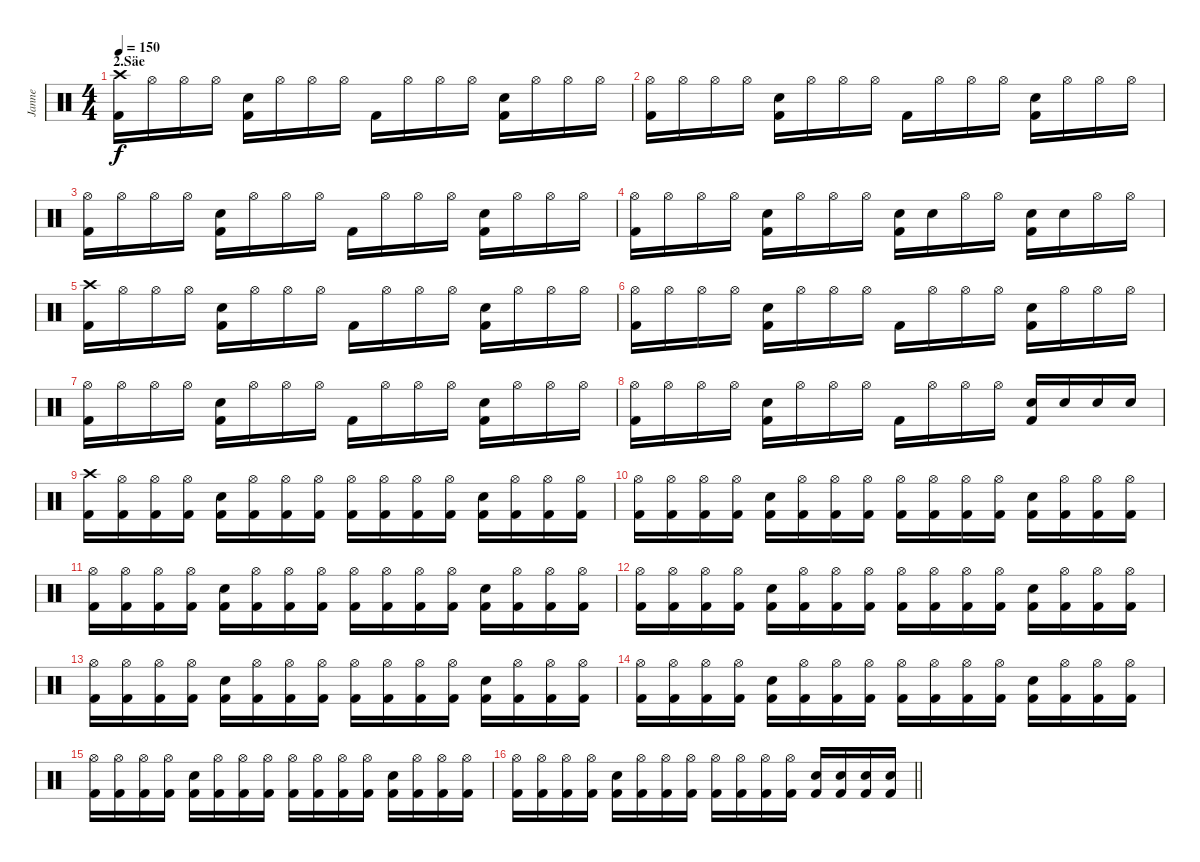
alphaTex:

\track ("Janne" "Janne") {instrument percussion}
\staff {score}
\articulation defaults
\ts (4 4)
\section ("" "2.Säe")
\tempo 150
\clef neutral
\ks c
("Crash high (hit)" "Kick (hit) 2").16{dy f} "Hi-Hat (open)".16 "Hi-Hat (open)".16 "Hi-Hat (open)".16 ("Electric Snare (hit)" "Kick (hit) 2").16 "Hi-Hat (open)".16 "Hi-Hat (open)".16 "Hi-Hat (open)".16 "Kick (hit) 2".16 "Hi-Hat (open)".16 "Hi-Hat (open)".16 "Hi-Hat (open)".16 ("Electric Snare (hit)" "Kick (hit) 2").16 "Hi-Hat (open)".16 "Hi-Hat (open)".16 "Hi-Hat (open)".16 |
("Hi-Hat (open)" "Kick (hit) 2").16 "Hi-Hat (open)".16 "Hi-Hat (open)".16 "Hi-Hat (open)".16 ("Electric Snare (hit)" "Kick (hit) 2").16 "Hi-Hat (open)".16 "Hi-Hat (open)".16 "Hi-Hat (open)".16 "Kick (hit) 2".16 "Hi-Hat (open)".16 "Hi-Hat (open)".16 "Hi-Hat (open)".16 ("Electric Snare (hit)" "Kick (hit) 2").16 "Hi-Hat (open)".16 "Hi-Hat (open)".16 "Hi-Hat (open)".16 |
("Hi-Hat (open)" "Kick (hit) 2").16 "Hi-Hat (open)".16 "Hi-Hat (open)".16 "Hi-Hat (open)".16 ("Electric Snare (hit)" "Kick (hit) 2").16 "Hi-Hat (open)".16 "Hi-Hat (open)".16 "Hi-Hat (open)".16 "Kick (hit) 2".16 "Hi-Hat (open)".16 "Hi-Hat (open)".16 "Hi-Hat (open)".16 ("Electric Snare (hit)" "Kick (hit) 2").16 "Hi-Hat (open)".16 "Hi-Hat (open)".16 "Hi-Hat (open)".16 |
("Hi-Hat (open)" "Kick (hit) 2").16 "Hi-Hat (open)".16 "Hi-Hat (open)".16 "Hi-Hat (open)".16 ("Electric Snare (hit)" "Kick (hit) 2").16 "Hi-Hat (open)".16 "Hi-Hat (open)".16 "Hi-Hat (open)".16 ("Electric Snare (hit)" "Kick (hit) 2").16 "Electric Snare (hit)".16 "Hi-Hat (open)".16 "Hi-Hat (open)".16 ("Electric Snare (hit)" "Kick (hit) 2").16 "Electric Snare (hit)".16 "Hi-Hat (open)".16 "Hi-Hat (open)".16 |
("Crash high (hit)" "Kick (hit) 2").16 "Hi-Hat (open)".16 "Hi-Hat (open)".16 "Hi-Hat (open)".16 ("Electric Snare (hit)" "Kick (hit) 2").16 "Hi-Hat (open)".16 "Hi-Hat (open)".16 "Hi-Hat (open)".16 "Kick (hit) 2".16 "Hi-Hat (open)".16 "Hi-Hat (open)".16 "Hi-Hat (open)".16 ("Electric Snare (hit)" "Kick (hit) 2").16 "Hi-Hat (open)".16 "Hi-Hat (open)".16 "Hi-Hat (open)".16 |
("Hi-Hat (open)" "Kick (hit) 2").16 "Hi-Hat (open)".16 "Hi-Hat (open)".16 "Hi-Hat (open)".16 ("Electric Snare (hit)" "Kick (hit) 2").16 "Hi-Hat (open)".16 "Hi-Hat (open)".16 "Hi-Hat (open)".16 "Kick (hit) 2".16 "Hi-Hat (open)".16 "Hi-Hat (open)".16 "Hi-Hat (open)".16 ("Electric Snare (hit)" "Kick (hit) 2").16 "Hi-Hat (open)".16 "Hi-Hat (open)".16 "Hi-Hat (open)".16 |
("Hi-Hat (open)" "Kick (hit) 2").16 "Hi-Hat (open)".16 "Hi-Hat (open)".16 "Hi-Hat (open)".16 ("Electric Snare (hit)" "Kick (hit) 2").16 "Hi-Hat (open)".16 "Hi-Hat (open)".16 "Hi-Hat (open)".16 "Kick (hit) 2".16 "Hi-Hat (open)".16 "Hi-Hat (open)".16 "Hi-Hat (open)".16 ("Electric Snare (hit)" "Kick (hit) 2").16 "Hi-Hat (open)".16 "Hi-Hat (open)".16 "Hi-Hat (open)".16 |
("Hi-Hat (open)" "Kick (hit) 2").16 "Hi-Hat (open)".16 "Hi-Hat (open)".16 "Hi-Hat (open)".16 ("Electric Snare (hit)" "Kick (hit) 2").16 "Hi-Hat (open)".16 "Hi-Hat (open)".16 "Hi-Hat (open)".16 "Kick (hit) 2".16 "Hi-Hat (open)".16 "Hi-Hat (open)".16 "Hi-Hat (open)".16 ("Electric Snare (hit)" "Kick (hit) 2").16 "Electric Snare (hit)".16 "Electric Snare (hit)".16 "Electric Snare (hit)".16 |
("Crash high (hit)" "Kick (hit) 2").16 ("Hi-Hat (open)" "Kick (hit) 2").16 ("Hi-Hat (open)" "Kick (hit) 2").16 ("Hi-Hat (open)" "Kick (hit) 2").16 ("Electric Snare (hit)" "Kick (hit) 2").16 ("Hi-Hat (open)" "Kick (hit) 2").16 ("Hi-Hat (open)" "Kick (hit) 2").16 ("Hi-Hat (open)" "Kick (hit) 2").16 ("Hi-Hat (open)" "Kick (hit) 2").16 ("Hi-Hat (open)" "Kick (hit) 2").16 ("Hi-Hat (open)" "Kick (hit) 2").16 ("Hi-Hat (open)" "Kick (hit) 2").16 ("Electric Snare (hit)" "Kick (hit) 2").16 ("Hi-Hat (open)" "Kick (hit) 2").16 ("Hi-Hat (open)" "Kick (hit) 2").16 ("Hi-Hat (open)" "Kick (hit) 2").16 |
("Hi-Hat (open)" "Kick (hit) 2").16 ("Hi-Hat (open)" "Kick (hit) 2").16 ("Hi-Hat (open)" "Kick (hit) 2").16 ("Hi-Hat (open)" "Kick (hit) 2").16 ("Electric Snare (hit)" "Kick (hit) 2").16 ("Hi-Hat (open)" "Kick (hit) 2").16 ("Hi-Hat (open)" "Kick (hit) 2").16 ("Hi-Hat (open)" "Kick (hit) 2").16 ("Hi-Hat (open)" "Kick (hit) 2").16 ("Hi-Hat (open)" "Kick (hit) 2").16 ("Hi-Hat (open)" "Kick (hit) 2").16 ("Hi-Hat (open)" "Kick (hit) 2").16 ("Electric Snare (hit)" "Kick (hit) 2").16 ("Hi-Hat (open)" "Kick (hit) 2").16 ("Hi-Hat (open)" "Kick (hit) 2").16 ("Hi-Hat (open)" "Kick (hit) 2").16 |
("Hi-Hat (open)" "Kick (hit) 2").16 ("Hi-Hat (open)" "Kick (hit) 2").16 ("Hi-Hat (open)" "Kick (hit) 2").16 ("Hi-Hat (open)" "Kick (hit) 2").16 ("Electric Snare (hit)" "Kick (hit) 2").16 ("Hi-Hat (open)" "Kick (hit) 2").16 ("Hi-Hat (open)" "Kick (hit) 2").16 ("Hi-Hat (open)" "Kick (hit) 2").16 ("Hi-Hat (open)" "Kick (hit) 2").16 ("Hi-Hat (open)" "Kick (hit) 2").16 ("Hi-Hat (open)" "Kick (hit) 2").16 ("Hi-Hat (open)" "Kick (hit) 2").16 ("Electric Snare (hit)" "Kick (hit) 2").16 ("Hi-Hat (open)" "Kick (hit) 2").16 ("Hi-Hat (open)" "Kick (hit) 2").16 ("Hi-Hat (open)" "Kick (hit) 2").16 |
("Hi-Hat (open)" "Kick (hit) 2").16 ("Hi-Hat (open)" "Kick (hit) 2").16 ("Hi-Hat (open)" "Kick (hit) 2").16 ("Hi-Hat (open)" "Kick (hit) 2").16 ("Electric Snare (hit)" "Kick (hit) 2").16 ("Hi-Hat (open)" "Kick (hit) 2").16 ("Hi-Hat (open)" "Kick (hit) 2").16 ("Hi-Hat (open)" "Kick (hit) 2").16 ("Hi-Hat (open)" "Kick (hit) 2").16 ("Hi-Hat (open)" "Kick (hit) 2").16 ("Hi-Hat (open)" "Kick (hit) 2").16 ("Hi-Hat (open)" "Kick (hit) 2").16 ("Electric Snare (hit)" "Kick (hit) 2").16 ("Hi-Hat (open)" "Kick (hit) 2").16 ("Hi-Hat (open)" "Kick (hit) 2").16 ("Hi-Hat (open)" "Kick (hit) 2").16 |
("Hi-Hat (open)" "Kick (hit) 2").16 ("Hi-Hat (open)" "Kick (hit) 2").16 ("Hi-Hat (open)" "Kick (hit) 2").16 ("Hi-Hat (open)" "Kick (hit) 2").16 ("Electric Snare (hit)" "Kick (hit) 2").16 ("Hi-Hat (open)" "Kick (hit) 2").16 ("Hi-Hat (open)" "Kick (hit) 2").16 ("Hi-Hat (open)" "Kick (hit) 2").16 ("Hi-Hat (open)" "Kick (hit) 2").16 ("Hi-Hat (open)" "Kick (hit) 2").16 ("Hi-Hat (open)" "Kick (hit) 2").16 ("Hi-Hat (open)" "Kick (hit) 2").16 ("Electric Snare (hit)" "Kick (hit) 2").16 ("Hi-Hat (open)" "Kick (hit) 2").16 ("Hi-Hat (open)" "Kick (hit) 2").16 ("Hi-Hat (open)" "Kick (hit) 2").16 |
("Hi-Hat (open)" "Kick (hit) 2").16 ("Hi-Hat (open)" "Kick (hit) 2").16 ("Hi-Hat (open)" "Kick (hit) 2").16 ("Hi-Hat (open)" "Kick (hit) 2").16 ("Electric Snare (hit)" "Kick (hit) 2").16 ("Hi-Hat (open)" "Kick (hit) 2").16 ("Hi-Hat (open)" "Kick (hit) 2").16 ("Hi-Hat (open)" "Kick (hit) 2").16 ("Hi-Hat (open)" "Kick (hit) 2").16 ("Hi-Hat (open)" "Kick (hit) 2").16 ("Hi-Hat (open)" "Kick (hit) 2").16 ("Hi-Hat (open)" "Kick (hit) 2").16 ("Electric Snare (hit)" "Kick (hit) 2").16 ("Hi-Hat (open)" "Kick (hit) 2").16 ("Hi-Hat (open)" "Kick (hit) 2").16 ("Hi-Hat (open)" "Kick (hit) 2").16 |
("Hi-Hat (open)" "Kick (hit) 2").16 ("Hi-Hat (open)" "Kick (hit) 2").16 ("Hi-Hat (open)" "Kick (hit) 2").16 ("Hi-Hat (open)" "Kick (hit) 2").16 ("Electric Snare (hit)" "Kick (hit) 2").16 ("Hi-Hat (open)" "Kick (hit) 2").16 ("Hi-Hat (open)" "Kick (hit) 2").16 ("Hi-Hat (open)" "Kick (hit) 2").16 ("Hi-Hat (open)" "Kick (hit) 2").16 ("Hi-Hat (open)" "Kick (hit) 2").16 ("Hi-Hat (open)" "Kick (hit) 2").16 ("Hi-Hat (open)" "Kick (hit) 2").16 ("Electric Snare (hit)" "Kick (hit) 2").16 ("Hi-Hat (open)" "Kick (hit) 2").16 ("Hi-Hat (open)" "Kick (hit) 2").16 ("Hi-Hat (open)" "Kick (hit) 2").16 |
\barLineRight lightlight
("Hi-Hat (open)" "Kick (hit) 2").16 ("Hi-Hat (open)" "Kick (hit) 2").16 ("Hi-Hat (open)" "Kick (hit) 2").16 ("Hi-Hat (open)" "Kick (hit) 2").16 ("Electric Snare (hit)" "Kick (hit) 2").16 ("Hi-Hat (open)" "Kick (hit) 2").16 ("Hi-Hat (open)" "Kick (hit) 2").16 ("Hi-Hat (open)" "Kick (hit) 2").16 ("Hi-Hat (open)" "Kick (hit) 2").16 ("Hi-Hat (open)" "Kick (hit) 2").16 ("Hi-Hat (open)" "Kick (hit) 2").16 ("Hi-Hat (open)" "Kick (hit) 2").16 ("Electric Snare (hit)" "Kick (hit) 2").16 ("Electric Snare (hit)" "Kick (hit) 2").16 ("Electric Snare (hit)" "Kick (hit) 2").16 ("Electric Snare (hit)" "Kick (hit) 2").16
